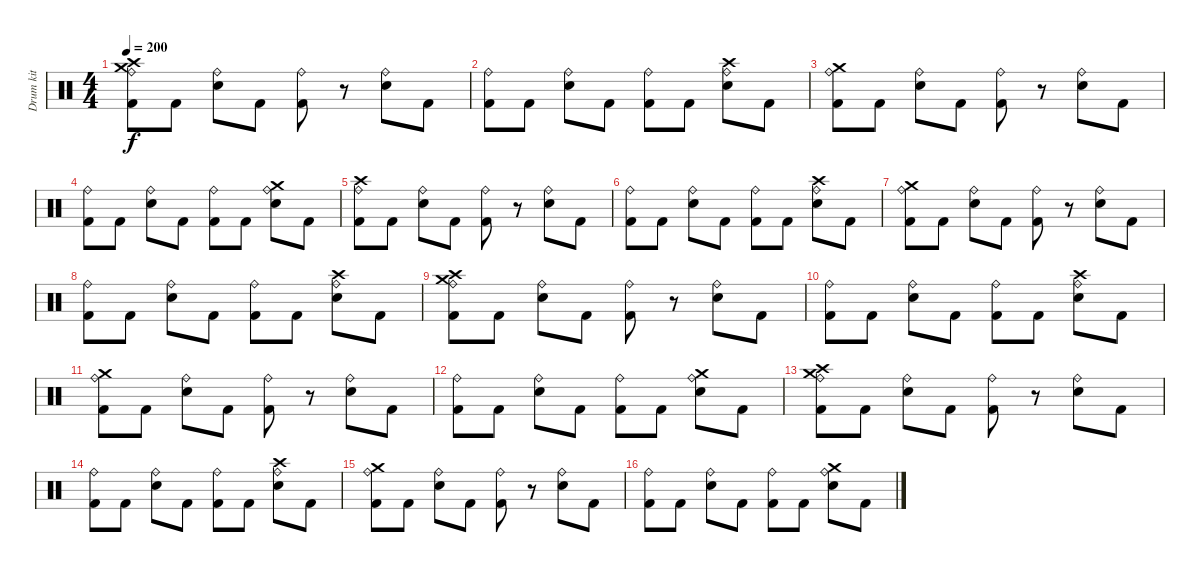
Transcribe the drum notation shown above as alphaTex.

\track ("Drum kit" "Drum kit") {instrument percussion}
\staff {score}
\articulation defaults
\ts (4 4)
\tempo 200
\clef neutral
\ks c
("Crash medium (hit)" "Crash high (hit)" "Kick (hit) 2" "Ride (bell)").8{dy f} "Kick (hit) 2".8 ("Electric Snare (hit)" "Ride (bell)").8 "Kick (hit) 2".8 ("Kick (hit) 2" "Ride (bell)").8 r.8 ("Electric Snare (hit)" "Ride (bell)").8 "Kick (hit) 2".8 |
("Kick (hit) 2" "Ride (bell)").8 "Kick (hit) 2".8 ("Electric Snare (hit)" "Ride (bell)").8 "Kick (hit) 2".8 ("Kick (hit) 2" "Ride (bell)").8 "Kick (hit) 2".8 ("Crash high (hit)" "Electric Snare (hit)" "Ride (bell)").8 "Kick (hit) 2".8 |
("Crash medium (hit)" "Kick (hit) 2" "Ride (bell)").8 "Kick (hit) 2".8 ("Electric Snare (hit)" "Ride (bell)").8 "Kick (hit) 2".8 ("Kick (hit) 2" "Ride (bell)").8 r.8 ("Electric Snare (hit)" "Ride (bell)").8 "Kick (hit) 2".8 |
("Kick (hit) 2" "Ride (bell)").8 "Kick (hit) 2".8 ("Electric Snare (hit)" "Ride (bell)").8 "Kick (hit) 2".8 ("Kick (hit) 2" "Ride (bell)").8 "Kick (hit) 2".8 ("Crash medium (hit)" "Electric Snare (hit)" "Ride (bell)").8 "Kick (hit) 2".8 |
("Crash high (hit)" "Kick (hit) 2" "Ride (bell)").8 "Kick (hit) 2".8 ("Electric Snare (hit)" "Ride (bell)").8 "Kick (hit) 2".8 ("Kick (hit) 2" "Ride (bell)").8 r.8 ("Electric Snare (hit)" "Ride (bell)").8 "Kick (hit) 2".8 |
("Kick (hit) 2" "Ride (bell)").8 "Kick (hit) 2".8 ("Electric Snare (hit)" "Ride (bell)").8 "Kick (hit) 2".8 ("Kick (hit) 2" "Ride (bell)").8 "Kick (hit) 2".8 ("Crash high (hit)" "Electric Snare (hit)" "Ride (bell)").8 "Kick (hit) 2".8 |
("Crash medium (hit)" "Kick (hit) 2" "Ride (bell)").8 "Kick (hit) 2".8 ("Electric Snare (hit)" "Ride (bell)").8 "Kick (hit) 2".8 ("Kick (hit) 2" "Ride (bell)").8 r.8 ("Electric Snare (hit)" "Ride (bell)").8 "Kick (hit) 2".8 |
("Kick (hit) 2" "Ride (bell)").8 "Kick (hit) 2".8 ("Electric Snare (hit)" "Ride (bell)").8 "Kick (hit) 2".8 ("Kick (hit) 2" "Ride (bell)").8 "Kick (hit) 2".8 ("Crash high (hit)" "Electric Snare (hit)" "Ride (bell)").8 "Kick (hit) 2".8 |
("Crash medium (hit)" "Crash high (hit)" "Kick (hit) 2" "Ride (bell)").8 "Kick (hit) 2".8 ("Electric Snare (hit)" "Ride (bell)").8 "Kick (hit) 2".8 ("Kick (hit) 2" "Ride (bell)").8 r.8 ("Electric Snare (hit)" "Ride (bell)").8 "Kick (hit) 2".8 |
("Kick (hit) 2" "Ride (bell)").8 "Kick (hit) 2".8 ("Electric Snare (hit)" "Ride (bell)").8 "Kick (hit) 2".8 ("Kick (hit) 2" "Ride (bell)").8 "Kick (hit) 2".8 ("Crash high (hit)" "Electric Snare (hit)" "Ride (bell)").8 "Kick (hit) 2".8 |
("Crash medium (hit)" "Kick (hit) 2" "Ride (bell)").8 "Kick (hit) 2".8 ("Electric Snare (hit)" "Ride (bell)").8 "Kick (hit) 2".8 ("Kick (hit) 2" "Ride (bell)").8 r.8 ("Electric Snare (hit)" "Ride (bell)").8 "Kick (hit) 2".8 |
("Kick (hit) 2" "Ride (bell)").8 "Kick (hit) 2".8 ("Electric Snare (hit)" "Ride (bell)").8 "Kick (hit) 2".8 ("Kick (hit) 2" "Ride (bell)").8 "Kick (hit) 2".8 ("Crash medium (hit)" "Electric Snare (hit)" "Ride (bell)").8 "Kick (hit) 2".8 |
("Crash medium (hit)" "Crash high (hit)" "Kick (hit) 2" "Ride (bell)").8 "Kick (hit) 2".8 ("Electric Snare (hit)" "Ride (bell)").8 "Kick (hit) 2".8 ("Kick (hit) 2" "Ride (bell)").8 r.8 ("Electric Snare (hit)" "Ride (bell)").8 "Kick (hit) 2".8 |
("Kick (hit) 2" "Ride (bell)").8 "Kick (hit) 2".8 ("Electric Snare (hit)" "Ride (bell)").8 "Kick (hit) 2".8 ("Kick (hit) 2" "Ride (bell)").8 "Kick (hit) 2".8 ("Crash high (hit)" "Electric Snare (hit)" "Ride (bell)").8 "Kick (hit) 2".8 |
("Crash medium (hit)" "Kick (hit) 2" "Ride (bell)").8 "Kick (hit) 2".8 ("Electric Snare (hit)" "Ride (bell)").8 "Kick (hit) 2".8 ("Kick (hit) 2" "Ride (bell)").8 r.8 ("Electric Snare (hit)" "Ride (bell)").8 "Kick (hit) 2".8 |
("Kick (hit) 2" "Ride (bell)").8 "Kick (hit) 2".8 ("Electric Snare (hit)" "Ride (bell)").8 "Kick (hit) 2".8 ("Kick (hit) 2" "Ride (bell)").8 "Kick (hit) 2".8 ("Crash medium (hit)" "Electric Snare (hit)" "Ride (bell)").8 "Kick (hit) 2".8
